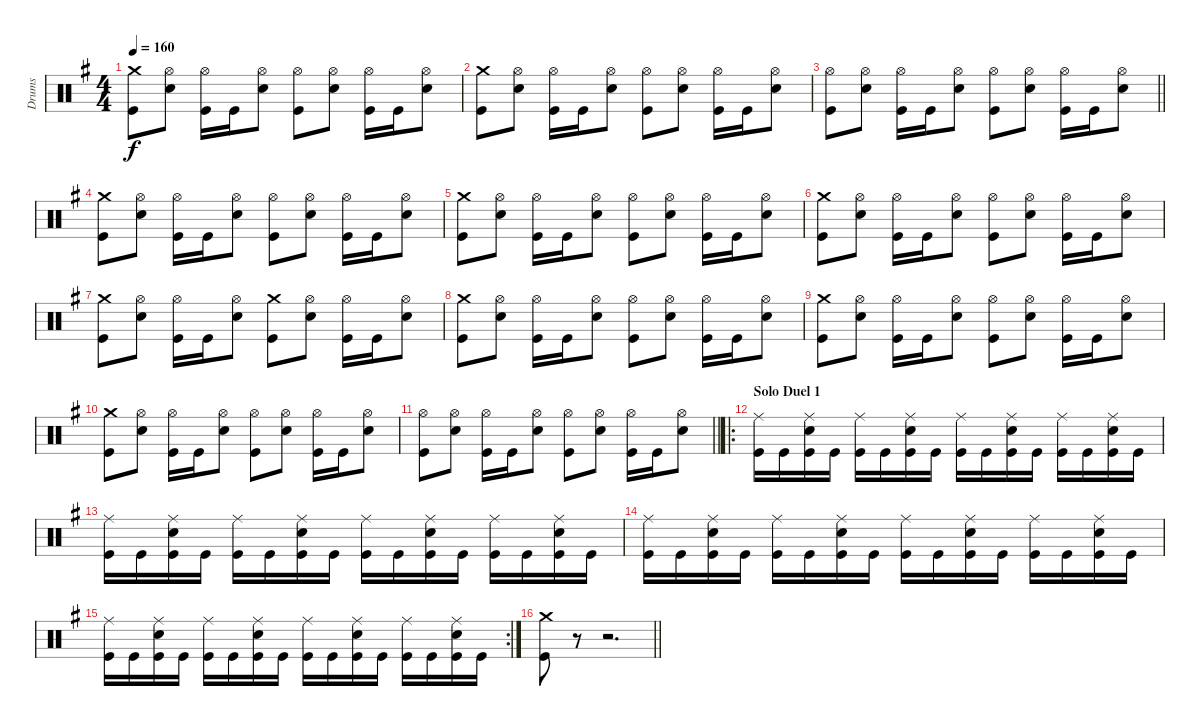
\track ("Drums" "Drums") {instrument percussion}
\staff {score}
\articulation defaults
\ts (4 4)
\tempo 160
\clef neutral
\ks eminor
("Crash medium (hit)" "Kick (hit)").8{dy f} ("Hi-Hat (open)" "Snare (hit) 2").8 ("Hi-Hat (open)" "Kick (hit)").16 "Kick (hit)".16 ("Hi-Hat (open)" "Snare (hit) 2").8 ("Hi-Hat (open)" "Kick (hit)").8 ("Hi-Hat (open)" "Snare (hit) 2").8 ("Hi-Hat (open)" "Kick (hit)").16 "Kick (hit)".16 ("Hi-Hat (open)" "Snare (hit) 2").8 |
("Crash medium (hit)" "Kick (hit)").8 ("Hi-Hat (open)" "Snare (hit) 2").8 ("Hi-Hat (open)" "Kick (hit)").16 "Kick (hit)".16 ("Hi-Hat (open)" "Snare (hit) 2").8 ("Hi-Hat (open)" "Kick (hit)").8 ("Hi-Hat (open)" "Snare (hit) 2").8 ("Hi-Hat (open)" "Kick (hit)").16 "Kick (hit)".16 ("Hi-Hat (open)" "Snare (hit) 2").8 |
\barLineRight lightlight
("Hi-Hat (open)" "Kick (hit)").8 ("Hi-Hat (open)" "Snare (hit) 2").8 ("Hi-Hat (open)" "Kick (hit)").16 "Kick (hit)".16 ("Hi-Hat (open)" "Snare (hit) 2").8 ("Hi-Hat (open)" "Kick (hit)").8 ("Hi-Hat (open)" "Snare (hit) 2").8 ("Hi-Hat (open)" "Kick (hit)").16 "Kick (hit)".16 ("Hi-Hat (open)" "Snare (hit) 2").8 |
("Crash medium (hit)" "Kick (hit)").8 ("Hi-Hat (open)" "Snare (hit) 2").8 ("Hi-Hat (open)" "Kick (hit)").16 "Kick (hit)".16 ("Hi-Hat (open)" "Snare (hit) 2").8 ("Hi-Hat (open)" "Kick (hit)").8 ("Hi-Hat (open)" "Snare (hit) 2").8 ("Hi-Hat (open)" "Kick (hit)").16 "Kick (hit)".16 ("Hi-Hat (open)" "Snare (hit) 2").8 |
("Crash medium (hit)" "Kick (hit)").8 ("Hi-Hat (open)" "Snare (hit) 2").8 ("Hi-Hat (open)" "Kick (hit)").16 "Kick (hit)".16 ("Hi-Hat (open)" "Snare (hit) 2").8 ("Hi-Hat (open)" "Kick (hit)").8 ("Hi-Hat (open)" "Snare (hit) 2").8 ("Hi-Hat (open)" "Kick (hit)").16 "Kick (hit)".16 ("Hi-Hat (open)" "Snare (hit) 2").8 |
("Crash medium (hit)" "Kick (hit)").8 ("Hi-Hat (open)" "Snare (hit) 2").8 ("Hi-Hat (open)" "Kick (hit)").16 "Kick (hit)".16 ("Hi-Hat (open)" "Snare (hit) 2").8 ("Hi-Hat (open)" "Kick (hit)").8 ("Hi-Hat (open)" "Snare (hit) 2").8 ("Hi-Hat (open)" "Kick (hit)").16 "Kick (hit)".16 ("Hi-Hat (open)" "Snare (hit) 2").8 |
("Crash medium (hit)" "Kick (hit)").8 ("Hi-Hat (open)" "Snare (hit) 2").8 ("Hi-Hat (open)" "Kick (hit)").16 "Kick (hit)".16 ("Hi-Hat (open)" "Snare (hit) 2").8 ("Crash medium (hit)" "Kick (hit)").8 ("Hi-Hat (open)" "Snare (hit) 2").8 ("Hi-Hat (open)" "Kick (hit)").16 "Kick (hit)".16 ("Hi-Hat (open)" "Snare (hit) 2").8 |
("Crash medium (hit)" "Kick (hit)").8 ("Hi-Hat (open)" "Snare (hit) 2").8 ("Hi-Hat (open)" "Kick (hit)").16 "Kick (hit)".16 ("Hi-Hat (open)" "Snare (hit) 2").8 ("Hi-Hat (open)" "Kick (hit)").8 ("Hi-Hat (open)" "Snare (hit) 2").8 ("Hi-Hat (open)" "Kick (hit)").16 "Kick (hit)".16 ("Hi-Hat (open)" "Snare (hit) 2").8 |
("Crash medium (hit)" "Kick (hit)").8 ("Hi-Hat (open)" "Snare (hit) 2").8 ("Hi-Hat (open)" "Kick (hit)").16 "Kick (hit)".16 ("Hi-Hat (open)" "Snare (hit) 2").8 ("Hi-Hat (open)" "Kick (hit)").8 ("Hi-Hat (open)" "Snare (hit) 2").8 ("Hi-Hat (open)" "Kick (hit)").16 "Kick (hit)".16 ("Hi-Hat (open)" "Snare (hit) 2").8 |
("Crash medium (hit)" "Kick (hit)").8 ("Hi-Hat (open)" "Snare (hit) 2").8 ("Hi-Hat (open)" "Kick (hit)").16 "Kick (hit)".16 ("Hi-Hat (open)" "Snare (hit) 2").8 ("Hi-Hat (open)" "Kick (hit)").8 ("Hi-Hat (open)" "Snare (hit) 2").8 ("Hi-Hat (open)" "Kick (hit)").16 "Kick (hit)".16 ("Hi-Hat (open)" "Snare (hit) 2").8 |
\barLineRight lightlight
("Hi-Hat (open)" "Kick (hit)").8 ("Hi-Hat (open)" "Snare (hit) 2").8 ("Hi-Hat (open)" "Kick (hit)").16 "Kick (hit)".16 ("Hi-Hat (open)" "Snare (hit) 2").8 ("Hi-Hat (open)" "Kick (hit)").8 ("Hi-Hat (open)" "Snare (hit) 2").8 ("Hi-Hat (open)" "Kick (hit)").16 "Kick (hit)".16 ("Hi-Hat (open)" "Snare (hit) 2").8 |
\ro
\section ("" "Solo Duel 1")
("Ride (middle)" "Kick (hit)").16 "Kick (hit)".16 ("Ride (middle)" "Snare (hit) 2" "Kick (hit)").16 "Kick (hit)".16 ("Ride (middle)" "Kick (hit)").16 "Kick (hit)".16 ("Ride (middle)" "Snare (hit) 2" "Kick (hit)").16 "Kick (hit)".16 ("Ride (middle)" "Kick (hit)").16 "Kick (hit)".16 ("Ride (middle)" "Snare (hit) 2" "Kick (hit)").16 "Kick (hit)".16 ("Ride (middle)" "Kick (hit)").16 "Kick (hit)".16 ("Ride (middle)" "Snare (hit) 2" "Kick (hit)").16 "Kick (hit)".16 |
("Ride (middle)" "Kick (hit)").16 "Kick (hit)".16 ("Ride (middle)" "Snare (hit) 2" "Kick (hit)").16 "Kick (hit)".16 ("Ride (middle)" "Kick (hit)").16 "Kick (hit)".16 ("Ride (middle)" "Snare (hit) 2" "Kick (hit)").16 "Kick (hit)".16 ("Ride (middle)" "Kick (hit)").16 "Kick (hit)".16 ("Ride (middle)" "Snare (hit) 2" "Kick (hit)").16 "Kick (hit)".16 ("Ride (middle)" "Kick (hit)").16 "Kick (hit)".16 ("Ride (middle)" "Snare (hit) 2" "Kick (hit)").16 "Kick (hit)".16 |
("Ride (middle)" "Kick (hit)").16 "Kick (hit)".16 ("Ride (middle)" "Snare (hit) 2" "Kick (hit)").16 "Kick (hit)".16 ("Ride (middle)" "Kick (hit)").16 "Kick (hit)".16 ("Ride (middle)" "Snare (hit) 2" "Kick (hit)").16 "Kick (hit)".16 ("Ride (middle)" "Kick (hit)").16 "Kick (hit)".16 ("Ride (middle)" "Snare (hit) 2" "Kick (hit)").16 "Kick (hit)".16 ("Ride (middle)" "Kick (hit)").16 "Kick (hit)".16 ("Ride (middle)" "Snare (hit) 2" "Kick (hit)").16 "Kick (hit)".16 |
\rc 2
("Ride (middle)" "Kick (hit)").16 "Kick (hit)".16 ("Ride (middle)" "Snare (hit) 2" "Kick (hit)").16 "Kick (hit)".16 ("Ride (middle)" "Kick (hit)").16 "Kick (hit)".16 ("Ride (middle)" "Snare (hit) 2" "Kick (hit)").16 "Kick (hit)".16 ("Ride (middle)" "Kick (hit)").16 "Kick (hit)".16 ("Ride (middle)" "Snare (hit) 2" "Kick (hit)").16 "Kick (hit)".16 ("Ride (middle)" "Kick (hit)").16 "Kick (hit)".16 ("Ride (middle)" "Snare (hit) 2" "Kick (hit)").16 "Kick (hit)".16 |
\barLineRight lightlight
("Crash medium (hit)" "Kick (hit)").8 r.8 r.2{d}
